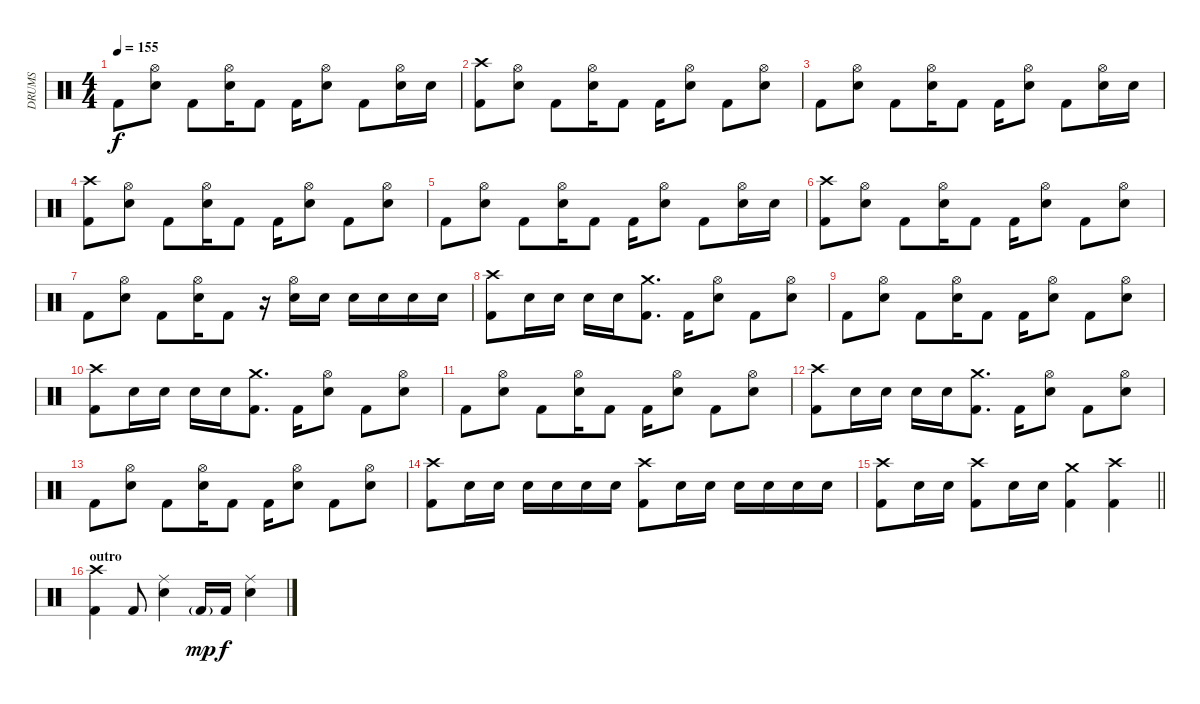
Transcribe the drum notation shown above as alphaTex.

\track ("DRUMS" "DRUMS") {instrument percussion}
\staff {score}
\articulation defaults
\ts (4 4)
\tempo 155
\clef neutral
\ks c "Kick (hit) 2".8{dy f}
("Hi-Hat (open)" "Electric Snare (hit)").8 "Kick (hit) 2".8 ("Hi-Hat (open)" "Electric Snare (hit)").16 "Kick (hit) 2".8 "Kick (hit) 2".16 ("Hi-Hat (open)" "Electric Snare (hit)").8 "Kick (hit) 2".8 ("Hi-Hat (open)" "Electric Snare (hit)").16 "Electric Snare (hit)".16 |
("Crash high (hit)" "Kick (hit) 2").8 ("Hi-Hat (open)" "Electric Snare (hit)").8 "Kick (hit) 2".8 ("Hi-Hat (open)" "Electric Snare (hit)").16 "Kick (hit) 2".8 "Kick (hit) 2".16 ("Hi-Hat (open)" "Electric Snare (hit)").8 "Kick (hit) 2".8 ("Hi-Hat (open)" "Electric Snare (hit)").8 |
"Kick (hit) 2".8 ("Hi-Hat (open)" "Electric Snare (hit)").8 "Kick (hit) 2".8 ("Hi-Hat (open)" "Electric Snare (hit)").16 "Kick (hit) 2".8 "Kick (hit) 2".16 ("Hi-Hat (open)" "Electric Snare (hit)").8 "Kick (hit) 2".8 ("Hi-Hat (open)" "Electric Snare (hit)").16 "Electric Snare (hit)".16 |
("Crash high (hit)" "Kick (hit) 2").8 ("Hi-Hat (open)" "Electric Snare (hit)").8 "Kick (hit) 2".8 ("Hi-Hat (open)" "Electric Snare (hit)").16 "Kick (hit) 2".8 "Kick (hit) 2".16 ("Hi-Hat (open)" "Electric Snare (hit)").8 "Kick (hit) 2".8 ("Hi-Hat (open)" "Electric Snare (hit)").8 |
"Kick (hit) 2".8 ("Hi-Hat (open)" "Electric Snare (hit)").8 "Kick (hit) 2".8 ("Hi-Hat (open)" "Electric Snare (hit)").16 "Kick (hit) 2".8 "Kick (hit) 2".16 ("Hi-Hat (open)" "Electric Snare (hit)").8 "Kick (hit) 2".8 ("Hi-Hat (open)" "Electric Snare (hit)").16 "Electric Snare (hit)".16 |
("Crash high (hit)" "Kick (hit) 2").8 ("Hi-Hat (open)" "Electric Snare (hit)").8 "Kick (hit) 2".8 ("Hi-Hat (open)" "Electric Snare (hit)").16 "Kick (hit) 2".8 "Kick (hit) 2".16 ("Hi-Hat (open)" "Electric Snare (hit)").8 "Kick (hit) 2".8 ("Hi-Hat (open)" "Electric Snare (hit)").8 |
"Kick (hit) 2".8 ("Hi-Hat (open)" "Electric Snare (hit)").8 "Kick (hit) 2".8 ("Hi-Hat (open)" "Electric Snare (hit)").16 "Kick (hit) 2".8 r.16 ("Hi-Hat (open)" "Electric Snare (hit)").16 "Electric Snare (hit)".16 "Electric Snare (hit)".16 "Electric Snare (hit)".16 "Electric Snare (hit)".16 "Electric Snare (hit)".16 |
("Crash high (hit)" "Kick (hit) 2").8 "Electric Snare (hit)".16 "Electric Snare (hit)".16 "Electric Snare (hit)".16 "Electric Snare (hit)".16 ("Crash medium (hit)" "Kick (hit) 2").8{d} "Kick (hit) 2".16 ("Hi-Hat (open)" "Electric Snare (hit)").8 "Kick (hit) 2".8 ("Hi-Hat (open)" "Electric Snare (hit)").8 |
"Kick (hit) 2".8 ("Hi-Hat (open)" "Electric Snare (hit)").8 "Kick (hit) 2".8 ("Hi-Hat (open)" "Electric Snare (hit)").16 "Kick (hit) 2".8 "Kick (hit) 2".16 ("Hi-Hat (open)" "Electric Snare (hit)").8 "Kick (hit) 2".8 ("Hi-Hat (open)" "Electric Snare (hit)").8 |
("Crash high (hit)" "Kick (hit) 2").8 "Electric Snare (hit)".16 "Electric Snare (hit)".16 "Electric Snare (hit)".16 "Electric Snare (hit)".16 ("Crash medium (hit)" "Kick (hit) 2").8{d} "Kick (hit) 2".16 ("Hi-Hat (open)" "Electric Snare (hit)").8 "Kick (hit) 2".8 ("Hi-Hat (open)" "Electric Snare (hit)").8 |
"Kick (hit) 2".8 ("Hi-Hat (open)" "Electric Snare (hit)").8 "Kick (hit) 2".8 ("Hi-Hat (open)" "Electric Snare (hit)").16 "Kick (hit) 2".8 "Kick (hit) 2".16 ("Hi-Hat (open)" "Electric Snare (hit)").8 "Kick (hit) 2".8 ("Hi-Hat (open)" "Electric Snare (hit)").8 |
("Crash high (hit)" "Kick (hit) 2").8 "Electric Snare (hit)".16 "Electric Snare (hit)".16 "Electric Snare (hit)".16 "Electric Snare (hit)".16 ("Crash medium (hit)" "Kick (hit) 2").8{d} "Kick (hit) 2".16 ("Hi-Hat (open)" "Electric Snare (hit)").8 "Kick (hit) 2".8 ("Hi-Hat (open)" "Electric Snare (hit)").8 |
"Kick (hit) 2".8 ("Hi-Hat (open)" "Electric Snare (hit)").8 "Kick (hit) 2".8 ("Hi-Hat (open)" "Electric Snare (hit)").16 "Kick (hit) 2".8 "Kick (hit) 2".16 ("Hi-Hat (open)" "Electric Snare (hit)").8 "Kick (hit) 2".8 ("Hi-Hat (open)" "Electric Snare (hit)").8 |
("Crash high (hit)" "Kick (hit) 2").8 "Electric Snare (hit)".16 "Electric Snare (hit)".16 "Electric Snare (hit)".16 "Electric Snare (hit)".16 "Electric Snare (hit)".16 "Electric Snare (hit)".16 ("Crash high (hit)" "Kick (hit) 2").8 "Electric Snare (hit)".16 "Electric Snare (hit)".16 "Electric Snare (hit)".16 "Electric Snare (hit)".16 "Electric Snare (hit)".16 "Electric Snare (hit)".16 |
\barLineRight lightlight
("Crash high (hit)" "Kick (hit) 2").8 "Electric Snare (hit)".16 "Electric Snare (hit)".16 ("Crash high (hit)" "Kick (hit) 2").8 "Electric Snare (hit)".16 "Electric Snare (hit)".16 ("Crash medium (hit)" "Kick (hit) 2").4 ("Crash high (hit)" "Kick (hit) 2").4 |
\section ("" "outro")
("Crash high (hit)" "Kick (hit) 2").4 "Kick (hit) 2".8 ("Ride (middle)" "Electric Snare (hit)").4 "Kick (hit) 2"{g}.16{dy mp} "Kick (hit) 2".16{dy f} ("Ride (middle)" "Electric Snare (hit)").4
